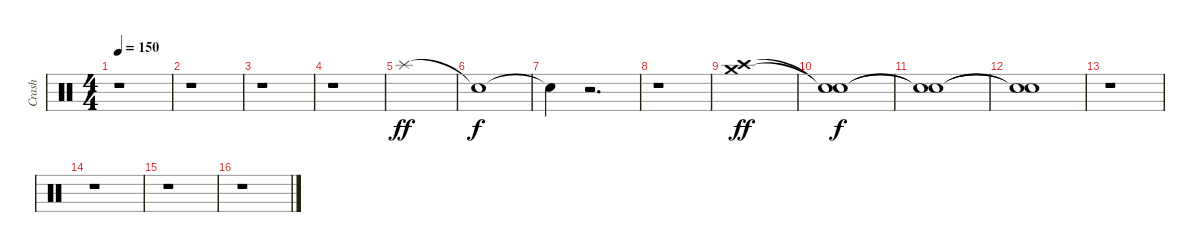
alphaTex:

\track ("Crash" "Crash") {instrument percussion}
\staff {score}
\articulation defaults
\ts (4 4)
\tempo 150
\clef neutral
\ks c
r.1{dy ff} |
r.1 |
r.1 |
r.1 |
"Splash (hit)".1 |
"Snare (hit)"{t}.1{dy f} |
"Snare (hit)"{t}.4 r.2{d} |
r.1 |
("Crash high (hit)" "Crash medium (hit)").1{dy ff} |
("Snare (hit)"{t} "Snare (hit)"{t}).1{dy f} |
("Snare (hit)"{t} "Snare (hit)"{t}).1 |
("Snare (hit)"{t} "Snare (hit)"{t}).1 |
r.1 |
r.1 |
r.1 |
r.1
